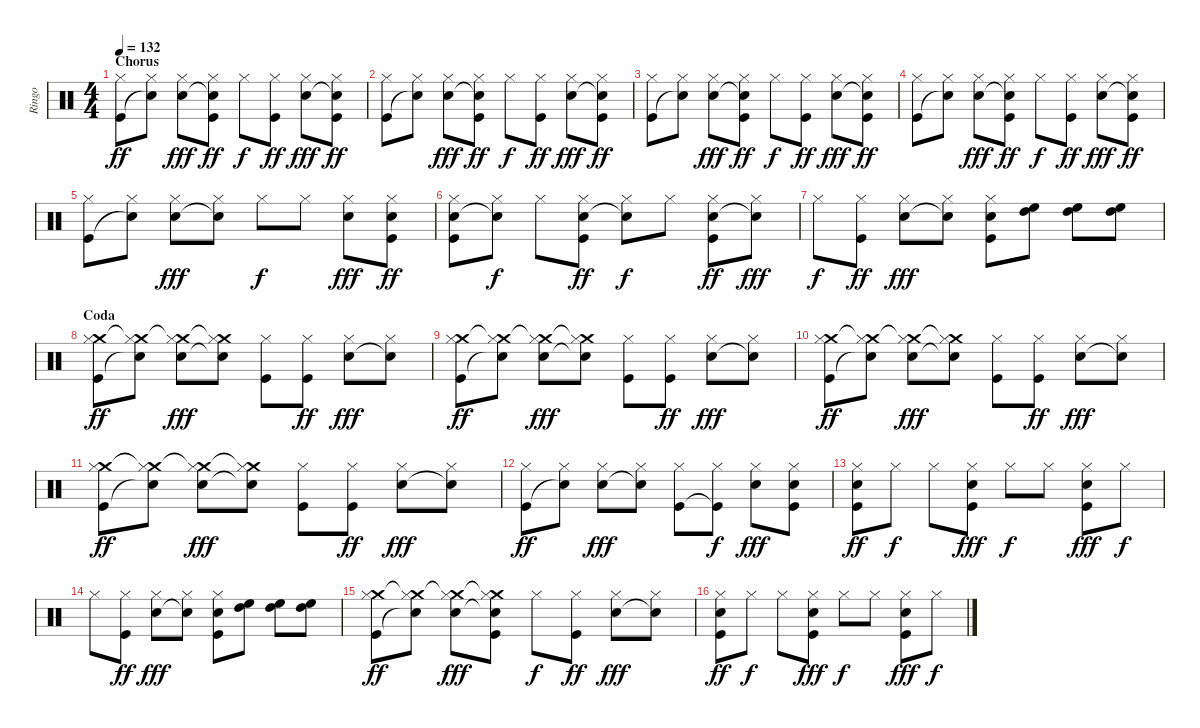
\track ("Ringo" "Ringo") {instrument percussion}
\staff {score}
\articulation defaults
\ts (4 4)
\section ("" "Chorus")
\tempo 132
\clef neutral
\ks c
("Hi-Hat (closed)" "Kick (hit)").8{dy ff} ("Hi-Hat (closed)" "Snare (hit)"{t}).8 ("Hi-Hat (closed)" "Snare (hit) 2").8{dy fff} ("Hi-Hat (closed)" "Snare (hit)"{t} "Kick (hit)").8{dy ff} "Hi-Hat (closed)".8{dy f} ("Hi-Hat (closed)" "Kick (hit)").8{dy ff} ("Hi-Hat (closed)" "Snare (hit) 2").8{dy fff} ("Hi-Hat (closed)" "Snare (hit)"{t} "Kick (hit)").8{dy ff} |
("Hi-Hat (closed)" "Kick (hit)").8 ("Hi-Hat (closed)" "Snare (hit)"{t}).8 ("Hi-Hat (closed)" "Electric Snare (hit)").8{dy fff} ("Hi-Hat (closed)" "Snare (hit)"{t} "Kick (hit)").8{dy ff} "Hi-Hat (closed)".8{dy f} ("Hi-Hat (closed)" "Kick (hit)").8{dy ff} ("Hi-Hat (closed)" "Electric Snare (hit)").8{dy fff} ("Hi-Hat (closed)" "Snare (hit)"{t} "Kick (hit)").8{dy ff} |
("Hi-Hat (closed)" "Kick (hit)").8 ("Hi-Hat (closed)" "Snare (hit)"{t}).8 ("Hi-Hat (closed)" "Electric Snare (hit)").8{dy fff} ("Hi-Hat (closed)" "Snare (hit)"{t} "Kick (hit)").8{dy ff} "Hi-Hat (closed)".8{dy f} ("Hi-Hat (closed)" "Kick (hit)").8{dy ff} ("Hi-Hat (closed)" "Electric Snare (hit)").8{dy fff} ("Hi-Hat (closed)" "Snare (hit)"{t} "Kick (hit)").8{dy ff} |
("Hi-Hat (closed)" "Kick (hit)").8 ("Hi-Hat (closed)" "Snare (hit)"{t}).8 ("Hi-Hat (closed)" "Electric Snare (hit)").8{dy fff} ("Hi-Hat (closed)" "Snare (hit)"{t} "Kick (hit)").8{dy ff} "Hi-Hat (closed)".8{dy f} ("Hi-Hat (closed)" "Kick (hit)").8{dy ff} ("Hi-Hat (closed)" "Electric Snare (hit)").8{dy fff} ("Hi-Hat (closed)" "Snare (hit)"{t} "Kick (hit)").8{dy ff} |
("Hi-Hat (closed)" "Kick (hit)").8 ("Hi-Hat (closed)" "Snare (hit)"{t}).8 ("Hi-Hat (closed)" "Electric Snare (hit)").8{dy fff} ("Hi-Hat (closed)" "Snare (hit)"{t}).8 "Hi-Hat (closed)".8{dy f} "Hi-Hat (closed)".8 ("Hi-Hat (closed)" "Electric Snare (hit)").8{dy fff} ("Hi-Hat (closed)" "Electric Snare (hit)" "Kick (hit)").8{dy ff} |
("Hi-Hat (closed)" "Electric Snare (hit)" "Kick (hit)").8 ("Hi-Hat (closed)" "Snare (hit)"{t}).8{dy f} "Hi-Hat (closed)".8 ("Hi-Hat (closed)" "Electric Snare (hit)" "Kick (hit)").8{dy ff} ("Hi-Hat (closed)" "Snare (hit)"{t}).8{dy f} "Hi-Hat (closed)".8 ("Hi-Hat (closed)" "Electric Snare (hit)" "Kick (hit)").8{dy ff} ("Hi-Hat (closed)" "Snare (hit)"{t}).8{dy fff} |
"Hi-Hat (closed)".8{dy f} ("Hi-Hat (closed)" "Kick (hit)").8{dy ff} ("Hi-Hat (closed)" "Electric Snare (hit)").8{dy fff} ("Hi-Hat (closed)" "Snare (hit)"{t}).8 ("Hi-Hat (closed)" "Electric Snare (hit)" "Kick (hit)").8 ("High Tom (hit)" "High Floor Tom (hit)").8 ("High Tom (hit)" "High Floor Tom (hit)").8 ("High Tom (hit)" "High Floor Tom (hit)").8 |
\section ("" "Coda")
("Crash medium (hit)" "Hi-Hat (closed)" "Kick (hit)").8{dy ff} ("Crash medium (hit)"{t} "Hi-Hat (closed)" "Snare (hit)"{t}).8 ("Crash medium (hit)"{t} "Hi-Hat (closed)" "Electric Snare (hit)").8{dy fff} ("Crash medium (hit)"{t} "Hi-Hat (closed)" "Snare (hit)"{t}).8 ("Hi-Hat (closed)" "Kick (hit)").8 ("Hi-Hat (closed)" "Kick (hit)").8{dy ff} ("Hi-Hat (closed)" "Electric Snare (hit)").8{dy fff} ("Hi-Hat (closed)" "Snare (hit)"{t}).8 |
("Crash medium (hit)" "Hi-Hat (closed)" "Kick (hit)").8{dy ff} ("Crash medium (hit)"{t} "Hi-Hat (closed)" "Snare (hit)"{t}).8 ("Crash medium (hit)"{t} "Hi-Hat (closed)" "Electric Snare (hit)").8{dy fff} ("Crash medium (hit)"{t} "Hi-Hat (closed)" "Snare (hit)"{t}).8 ("Hi-Hat (closed)" "Kick (hit)").8 ("Hi-Hat (closed)" "Kick (hit)").8{dy ff} ("Hi-Hat (closed)" "Electric Snare (hit)").8{dy fff} ("Hi-Hat (closed)" "Snare (hit)"{t}).8 |
("Crash medium (hit)" "Hi-Hat (closed)" "Kick (hit)").8{dy ff} ("Crash medium (hit)"{t} "Hi-Hat (closed)" "Snare (hit)"{t}).8 ("Crash medium (hit)"{t} "Hi-Hat (closed)" "Electric Snare (hit)").8{dy fff} ("Crash medium (hit)"{t} "Hi-Hat (closed)" "Snare (hit)"{t}).8 ("Hi-Hat (closed)" "Kick (hit)").8 ("Hi-Hat (closed)" "Kick (hit)").8{dy ff} ("Hi-Hat (closed)" "Electric Snare (hit)").8{dy fff} ("Hi-Hat (closed)" "Snare (hit)"{t}).8 |
("Crash medium (hit)" "Hi-Hat (closed)" "Kick (hit)").8{dy ff} ("Crash medium (hit)"{t} "Hi-Hat (closed)" "Snare (hit)"{t}).8 ("Crash medium (hit)"{t} "Hi-Hat (closed)" "Electric Snare (hit)").8{dy fff} ("Crash medium (hit)"{t} "Hi-Hat (closed)" "Snare (hit)"{t}).8 ("Hi-Hat (closed)" "Kick (hit)").8 ("Hi-Hat (closed)" "Kick (hit)").8{dy ff} ("Hi-Hat (closed)" "Electric Snare (hit)").8{dy fff} ("Hi-Hat (closed)" "Snare (hit)"{t}).8 |
("Hi-Hat (closed)" "Kick (hit)").8{dy ff} ("Hi-Hat (closed)" "Snare (hit)"{t}).8 ("Hi-Hat (closed)" "Electric Snare (hit)").8{dy fff} ("Hi-Hat (closed)" "Snare (hit)"{t}).8 ("Hi-Hat (closed)" "Kick (hit)").8 ("Hi-Hat (closed)" "Kick (hit)"{t}).8{dy f} ("Hi-Hat (closed)" "Electric Snare (hit)").8{dy fff} ("Hi-Hat (closed)" "Electric Snare (hit)" "Kick (hit)").8 |
("Hi-Hat (closed)" "Electric Snare (hit)" "Kick (hit)").8{dy ff} "Hi-Hat (closed)".8{dy f} "Hi-Hat (closed)".8 ("Hi-Hat (closed)" "Electric Snare (hit)" "Kick (hit)").8{dy fff} "Hi-Hat (closed)".8{dy f} "Hi-Hat (closed)".8 ("Hi-Hat (closed)" "Electric Snare (hit)" "Kick (hit)").8{dy fff} "Hi-Hat (closed)".8{dy f} |
"Hi-Hat (closed)".8 ("Hi-Hat (closed)" "Kick (hit)").8{dy ff} ("Hi-Hat (closed)" "Electric Snare (hit)").8{dy fff} ("Hi-Hat (closed)" "Snare (hit)"{t}).8 ("Hi-Hat (closed)" "Electric Snare (hit)" "Kick (hit)").8 ("High Tom (hit)" "High Floor Tom (hit)").8 ("High Tom (hit)" "High Floor Tom (hit)").8 ("High Tom (hit)" "High Floor Tom (hit)").8 |
("Crash medium (hit)" "Hi-Hat (closed)" "Kick (hit)").8{dy ff} ("Crash medium (hit)"{t} "Hi-Hat (closed)" "Snare (hit)"{t}).8 ("Crash medium (hit)"{t} "Hi-Hat (closed)" "Electric Snare (hit)").8{dy fff} ("Crash medium (hit)"{t} "Hi-Hat (closed)" "Snare (hit)"{t} "Kick (hit)").8 "Hi-Hat (closed)".8{dy f} ("Hi-Hat (closed)" "Kick (hit)").8{dy ff} ("Hi-Hat (closed)" "Electric Snare (hit)").8{dy fff} ("Hi-Hat (closed)" "Snare (hit)"{t}).8 |
("Hi-Hat (closed)" "Electric Snare (hit)" "Kick (hit)").8{dy ff} "Hi-Hat (closed)".8{dy f} "Hi-Hat (closed)".8 ("Hi-Hat (closed)" "Electric Snare (hit)" "Kick (hit)").8{dy fff} "Hi-Hat (closed)".8{dy f} "Hi-Hat (closed)".8 ("Hi-Hat (closed)" "Electric Snare (hit)" "Kick (hit)").8{dy fff} "Hi-Hat (closed)".8{dy f}
